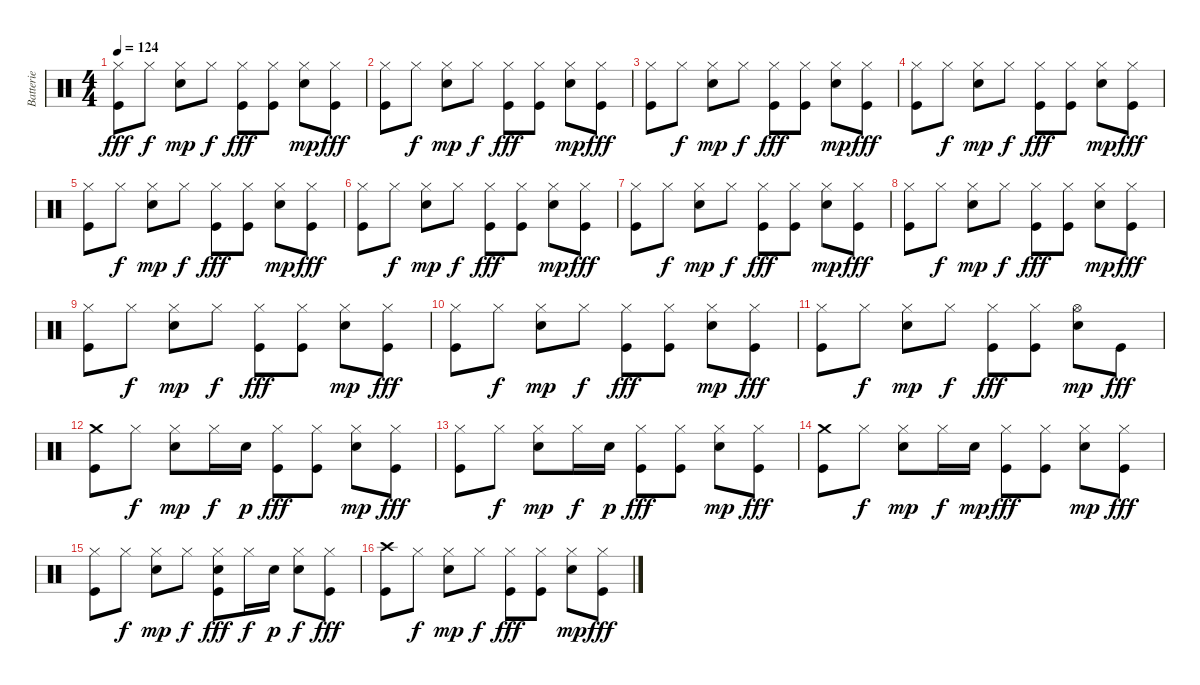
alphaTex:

\track ("Batterie" "Batterie") {instrument percussion}
\staff {score}
\articulation defaults
\ts (4 4)
\tempo 124
\clef neutral
\ks c
("Hi-Hat (closed)" "Kick (hit)").8{dy fff} "Hi-Hat (closed)".8{dy f} ("Hi-Hat (closed)" "Electric Snare (hit)").8{dy mp} "Hi-Hat (closed)".8{dy f} ("Hi-Hat (closed)" "Kick (hit)").8{dy fff} ("Hi-Hat (closed)" "Kick (hit)").8 ("Hi-Hat (closed)" "Electric Snare (hit)").8{dy mp} ("Hi-Hat (closed)" "Kick (hit)").8{dy fff} |
("Hi-Hat (closed)" "Kick (hit)").8 "Hi-Hat (closed)".8{dy f} ("Hi-Hat (closed)" "Electric Snare (hit)").8{dy mp} "Hi-Hat (closed)".8{dy f} ("Hi-Hat (closed)" "Kick (hit)").8{dy fff} ("Hi-Hat (closed)" "Kick (hit)").8 ("Hi-Hat (closed)" "Electric Snare (hit)").8{dy mp} ("Hi-Hat (closed)" "Kick (hit)").8{dy fff} |
("Hi-Hat (closed)" "Kick (hit)").8 "Hi-Hat (closed)".8{dy f} ("Hi-Hat (closed)" "Electric Snare (hit)").8{dy mp} "Hi-Hat (closed)".8{dy f} ("Hi-Hat (closed)" "Kick (hit)").8{dy fff} ("Hi-Hat (closed)" "Kick (hit)").8 ("Hi-Hat (closed)" "Electric Snare (hit)").8{dy mp} ("Hi-Hat (closed)" "Kick (hit)").8{dy fff} |
("Hi-Hat (closed)" "Kick (hit)").8 "Hi-Hat (closed)".8{dy f} ("Hi-Hat (closed)" "Electric Snare (hit)").8{dy mp} "Hi-Hat (closed)".8{dy f} ("Hi-Hat (closed)" "Kick (hit)").8{dy fff} ("Hi-Hat (closed)" "Kick (hit)").8 ("Hi-Hat (closed)" "Electric Snare (hit)").8{dy mp} ("Hi-Hat (closed)" "Kick (hit)").8{dy fff} |
("Hi-Hat (closed)" "Kick (hit)").8 "Hi-Hat (closed)".8{dy f} ("Hi-Hat (closed)" "Electric Snare (hit)").8{dy mp} "Hi-Hat (closed)".8{dy f} ("Hi-Hat (closed)" "Kick (hit)").8{dy fff} ("Hi-Hat (closed)" "Kick (hit)").8 ("Hi-Hat (closed)" "Electric Snare (hit)").8{dy mp} ("Hi-Hat (closed)" "Kick (hit)").8{dy fff} |
("Hi-Hat (closed)" "Kick (hit)").8 "Hi-Hat (closed)".8{dy f} ("Hi-Hat (closed)" "Electric Snare (hit)").8{dy mp} "Hi-Hat (closed)".8{dy f} ("Hi-Hat (closed)" "Kick (hit)").8{dy fff} ("Hi-Hat (closed)" "Kick (hit)").8 ("Hi-Hat (closed)" "Electric Snare (hit)").8{dy mp} ("Hi-Hat (closed)" "Kick (hit)").8{dy fff} |
("Hi-Hat (closed)" "Kick (hit)").8 "Hi-Hat (closed)".8{dy f} ("Hi-Hat (closed)" "Electric Snare (hit)").8{dy mp} "Hi-Hat (closed)".8{dy f} ("Hi-Hat (closed)" "Kick (hit)").8{dy fff} ("Hi-Hat (closed)" "Kick (hit)").8 ("Hi-Hat (closed)" "Electric Snare (hit)").8{dy mp} ("Hi-Hat (closed)" "Kick (hit)").8{dy fff} |
("Hi-Hat (closed)" "Kick (hit)").8 "Hi-Hat (closed)".8{dy f} ("Hi-Hat (closed)" "Electric Snare (hit)").8{dy mp} "Hi-Hat (closed)".8{dy f} ("Hi-Hat (closed)" "Kick (hit)").8{dy fff} ("Hi-Hat (closed)" "Kick (hit)").8 ("Hi-Hat (closed)" "Electric Snare (hit)").8{dy mp} ("Hi-Hat (closed)" "Kick (hit)").8{dy fff} |
("Hi-Hat (closed)" "Kick (hit)").8 "Hi-Hat (closed)".8{dy f} ("Hi-Hat (closed)" "Electric Snare (hit)").8{dy mp} "Hi-Hat (closed)".8{dy f} ("Hi-Hat (closed)" "Kick (hit)").8{dy fff} ("Hi-Hat (closed)" "Kick (hit)").8 ("Hi-Hat (closed)" "Electric Snare (hit)").8{dy mp} ("Hi-Hat (closed)" "Kick (hit)").8{dy fff} |
("Hi-Hat (closed)" "Kick (hit)").8 "Hi-Hat (closed)".8{dy f} ("Hi-Hat (closed)" "Electric Snare (hit)").8{dy mp} "Hi-Hat (closed)".8{dy f} ("Hi-Hat (closed)" "Kick (hit)").8{dy fff} ("Hi-Hat (closed)" "Kick (hit)").8 ("Hi-Hat (closed)" "Electric Snare (hit)").8{dy mp} ("Hi-Hat (closed)" "Kick (hit)").8{dy fff} |
("Hi-Hat (closed)" "Kick (hit)").8 "Hi-Hat (closed)".8{dy f} ("Hi-Hat (closed)" "Electric Snare (hit)").8{dy mp} "Hi-Hat (closed)".8{dy f} ("Hi-Hat (closed)" "Kick (hit)").8{dy fff} ("Hi-Hat (closed)" "Kick (hit)").8 ("Hi-Hat (open)" "Electric Snare (hit)").8{dy mp} "Kick (hit)".8{dy fff} |
("Crash medium (hit)" "Kick (hit)").8 "Hi-Hat (closed)".8{dy f} ("Hi-Hat (closed)" "Electric Snare (hit)").8{dy mp} "Hi-Hat (closed)".16{dy f} "Electric Snare (hit)".16{dy p} ("Hi-Hat (closed)" "Kick (hit)").8{dy fff} ("Hi-Hat (closed)" "Kick (hit)").8 ("Hi-Hat (closed)" "Electric Snare (hit)").8{dy mp} ("Hi-Hat (closed)" "Kick (hit)").8{dy fff} |
("Hi-Hat (closed)" "Kick (hit)").8 "Hi-Hat (closed)".8{dy f} ("Hi-Hat (closed)" "Electric Snare (hit)").8{dy mp} "Hi-Hat (closed)".16{dy f} "Electric Snare (hit)".16{dy p} ("Hi-Hat (closed)" "Kick (hit)").8{dy fff} ("Hi-Hat (closed)" "Kick (hit)").8 ("Hi-Hat (closed)" "Electric Snare (hit)").8{dy mp} ("Hi-Hat (closed)" "Kick (hit)").8{dy fff} |
("Crash medium (hit)" "Kick (hit)").8 "Hi-Hat (closed)".8{dy f} ("Hi-Hat (closed)" "Electric Snare (hit)").8{dy mp} "Hi-Hat (closed)".16{dy f} "Electric Snare (hit)".16{dy mp} ("Hi-Hat (closed)" "Kick (hit)").8{dy fff} ("Hi-Hat (closed)" "Kick (hit)").8 ("Hi-Hat (closed)" "Electric Snare (hit)").8{dy mp} ("Hi-Hat (closed)" "Kick (hit)").8{dy fff} |
("Hi-Hat (closed)" "Kick (hit)").8 "Hi-Hat (closed)".8{dy f} ("Hi-Hat (closed)" "Electric Snare (hit)").8{dy mp} "Hi-Hat (closed)".8{dy f} ("Hi-Hat (closed)" "Electric Snare (hit)" "Kick (hit)").8{dy fff} "Hi-Hat (closed)".16{dy f} "Electric Snare (hit)".16{dy p} ("Hi-Hat (closed)" "Electric Snare (hit)").8{dy f} ("Hi-Hat (closed)" "Kick (hit)").8{dy fff} |
("Crash high (hit)" "Kick (hit)").8 "Hi-Hat (closed)".8{dy f} ("Hi-Hat (closed)" "Electric Snare (hit)").8{dy mp} "Hi-Hat (closed)".8{dy f} ("Hi-Hat (closed)" "Kick (hit)").8{dy fff} ("Hi-Hat (closed)" "Kick (hit)").8 ("Hi-Hat (closed)" "Electric Snare (hit)").8{dy mp} ("Hi-Hat (closed)" "Kick (hit)").8{dy fff}
